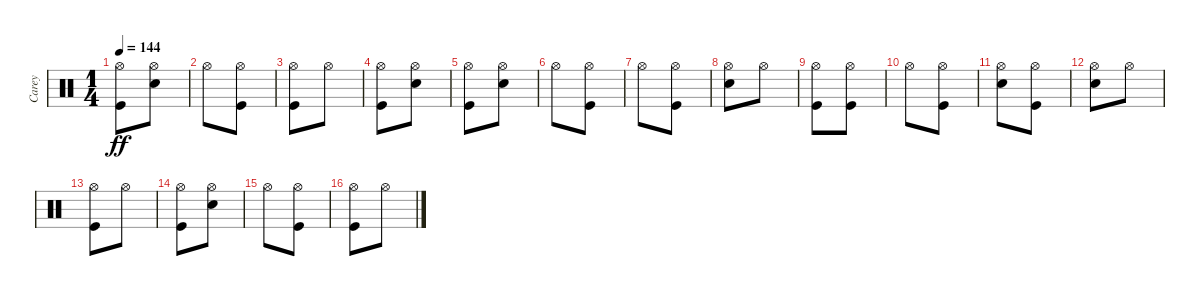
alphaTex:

\track ("Carey" "Carey") {instrument percussion}
\staff {score}
\articulation defaults
\ts (1 4)
\tempo 144
\clef neutral
\ks c
("Kick (hit)" "Hi-Hat (open)").8{dy ff} ("Snare (hit) 2" "Hi-Hat (open)").8 |
"Hi-Hat (open)".8 ("Kick (hit)" "Hi-Hat (open)").8 |
("Kick (hit)" "Hi-Hat (open)").8 "Hi-Hat (open)".8 |
("Kick (hit)" "Hi-Hat (open)").8 ("Snare (hit) 2" "Hi-Hat (open)").8 |
("Kick (hit)" "Hi-Hat (open)").8 ("Snare (hit) 2" "Hi-Hat (open)").8 |
"Hi-Hat (open)".8 ("Kick (hit)" "Hi-Hat (open)").8 |
"Hi-Hat (open)".8 ("Kick (hit)" "Hi-Hat (open)").8 |
("Snare (hit) 2" "Hi-Hat (open)").8 "Hi-Hat (open)".8 |
("Kick (hit)" "Hi-Hat (open)").8 ("Kick (hit)" "Hi-Hat (open)").8 |
"Hi-Hat (open)".8 ("Kick (hit)" "Hi-Hat (open)").8 |
("Snare (hit) 2" "Hi-Hat (open)").8 ("Kick (hit)" "Hi-Hat (open)").8 |
("Snare (hit) 2" "Hi-Hat (open)").8 "Hi-Hat (open)".8 |
("Kick (hit)" "Hi-Hat (open)").8 "Hi-Hat (open)".8 |
("Kick (hit)" "Hi-Hat (open)").8 ("Snare (hit) 2" "Hi-Hat (open)").8 |
"Hi-Hat (open)".8 ("Kick (hit)" "Hi-Hat (open)").8 |
("Kick (hit)" "Hi-Hat (open)").8 "Hi-Hat (open)".8
